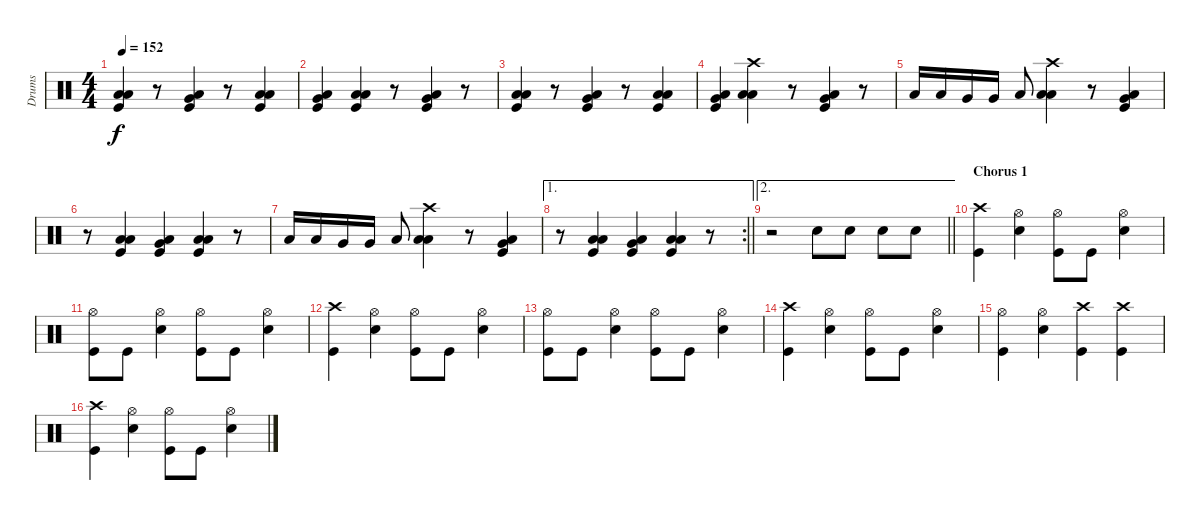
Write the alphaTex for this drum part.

\track ("Drums" "Drums") {instrument percussion}
\staff {score}
\articulation defaults
\ts (4 4)
\tempo 152
\clef neutral
\ks c
("Low Tom (hit)" "Kick (hit)" "Low Floor Tom (hit)").4{dy f} r.8 ("Kick (hit)" "Very Low Tom (hit)" "Low Floor Tom (hit)").4 r.8 ("Low Tom (hit)" "Kick (hit)" "Low Floor Tom (hit)").4 |
("Kick (hit)" "Very Low Tom (hit)" "Low Floor Tom (hit)").4 ("Low Tom (hit)" "Kick (hit)" "Low Floor Tom (hit)").4 r.8 ("Kick (hit)" "Very Low Tom (hit)" "Low Floor Tom (hit)").4 r.8 |
("Low Tom (hit)" "Kick (hit)" "Low Floor Tom (hit)").4 r.8 ("Kick (hit)" "Very Low Tom (hit)" "Low Floor Tom (hit)").4 r.8 ("Low Tom (hit)" "Kick (hit)" "Low Floor Tom (hit)").4 |
("Kick (hit)" "Very Low Tom (hit)" "Low Floor Tom (hit)").4 ("Low Tom (hit)" "Low Floor Tom (hit)" "Crash high (hit)").4 r.8 ("Kick (hit)" "Very Low Tom (hit)" "Low Floor Tom (hit)").4 r.8 |
"Low Tom (hit)".16 "Low Tom (hit)".16 "Very Low Tom (hit)".16 "Very Low Tom (hit)".16 "Low Floor Tom (hit)".8 ("Low Tom (hit)" "Low Floor Tom (hit)" "Crash high (hit)").4 r.8 ("Kick (hit)" "Very Low Tom (hit)" "Low Floor Tom (hit)").4 |
r.8 ("Low Tom (hit)" "Kick (hit)" "Low Floor Tom (hit)").4 ("Kick (hit)" "Very Low Tom (hit)" "Low Floor Tom (hit)").4 ("Low Tom (hit)" "Kick (hit)" "Low Floor Tom (hit)").4 r.8 |
"Low Tom (hit)".16 "Low Tom (hit)".16 "Very Low Tom (hit)".16 "Very Low Tom (hit)".16 "Low Floor Tom (hit)".8 ("Low Tom (hit)" "Low Floor Tom (hit)" "Crash high (hit)").4 r.8 ("Kick (hit)" "Very Low Tom (hit)" "Low Floor Tom (hit)").4 |
\ae 1
\rc 2
\barLineRight lightlight
r.8 ("Low Tom (hit)" "Kick (hit)" "Low Floor Tom (hit)").4 ("Kick (hit)" "Very Low Tom (hit)" "Low Floor Tom (hit)").4 ("Low Tom (hit)" "Kick (hit)" "Low Floor Tom (hit)").4 r.8 |
\ae 2
\barLineRight lightlight
r.2 "Snare (hit) 2".8 "Snare (hit) 2".8 "Snare (hit) 2".8 "Snare (hit) 2".8 |
\section ("" "Chorus 1")
("Kick (hit)" "Crash high (hit)").4 ("Hi-Hat (open)" "Snare (hit) 2").4 ("Hi-Hat (open)" "Kick (hit)").8 "Kick (hit)".8 ("Hi-Hat (open)" "Snare (hit) 2").4 |
("Hi-Hat (open)" "Kick (hit)").8 "Kick (hit)".8 ("Hi-Hat (open)" "Snare (hit) 2").4 ("Hi-Hat (open)" "Kick (hit)").8 "Kick (hit)".8 ("Hi-Hat (open)" "Snare (hit) 2").4 |
("Kick (hit)" "Crash high (hit)").4 ("Hi-Hat (open)" "Snare (hit) 2").4 ("Hi-Hat (open)" "Kick (hit)").8 "Kick (hit)".8 ("Hi-Hat (open)" "Snare (hit) 2").4 |
("Hi-Hat (open)" "Kick (hit)").8 "Kick (hit)".8 ("Hi-Hat (open)" "Snare (hit) 2").4 ("Hi-Hat (open)" "Kick (hit)").8 "Kick (hit)".8 ("Hi-Hat (open)" "Snare (hit) 2").4 |
("Kick (hit)" "Crash high (hit)").4 ("Hi-Hat (open)" "Snare (hit) 2").4 ("Hi-Hat (open)" "Kick (hit)").8 "Kick (hit)".8 ("Hi-Hat (open)" "Snare (hit) 2").4 |
("Kick (hit)" "Hi-Hat (open)").4 ("Hi-Hat (open)" "Snare (hit) 2").4 ("Kick (hit)" "Crash high (hit)").4 ("Kick (hit)" "Crash high (hit)").4 |
("Kick (hit)" "Crash high (hit)").4 ("Hi-Hat (open)" "Snare (hit) 2").4 ("Hi-Hat (open)" "Kick (hit)").8 "Kick (hit)".8 ("Hi-Hat (open)" "Snare (hit) 2").4
